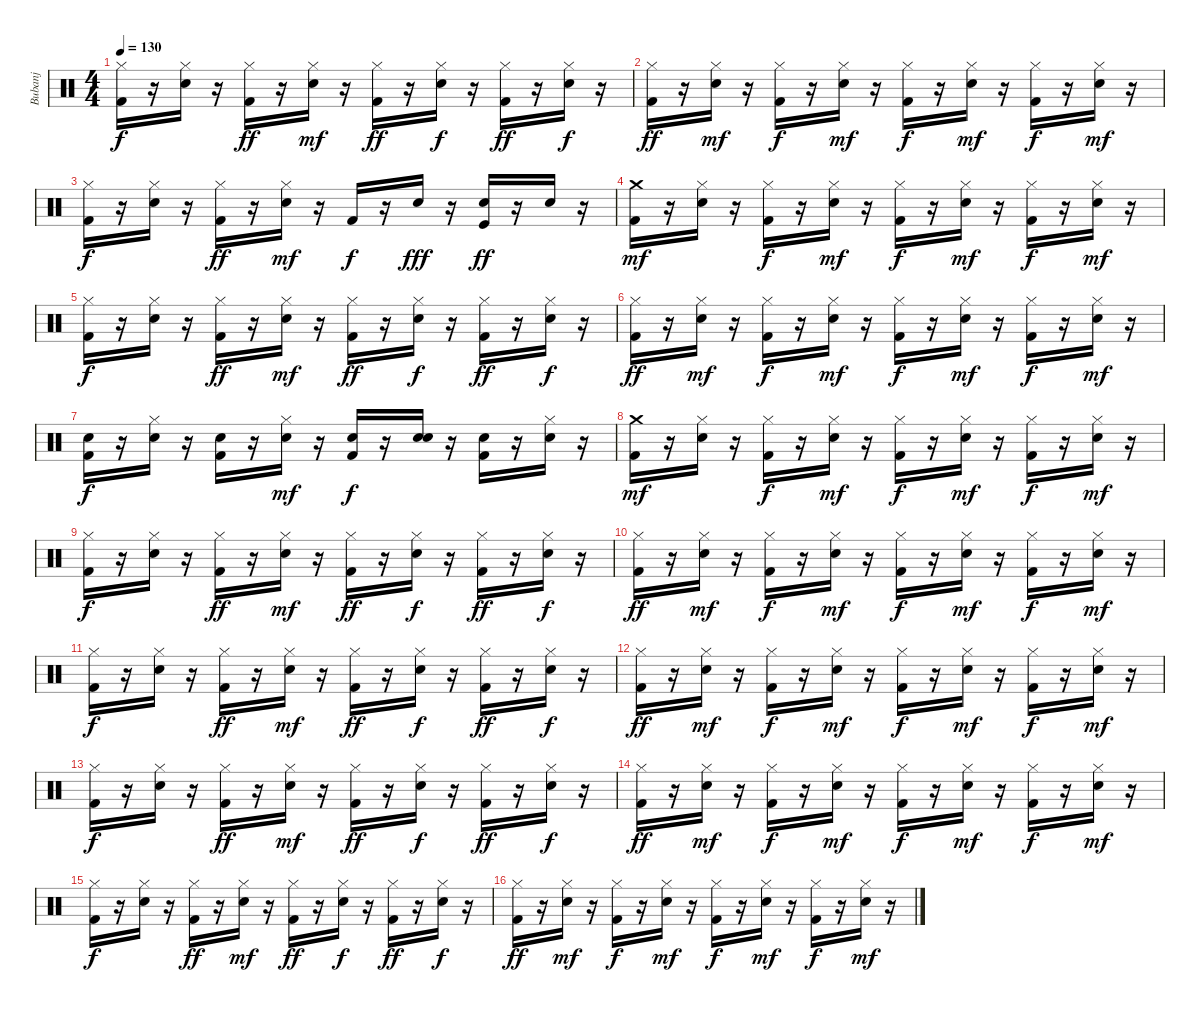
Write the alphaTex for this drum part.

\track ("Bubanj" "Bubanj") {instrument percussion}
\staff {score}
\articulation defaults
\ts (4 4)
\tempo 130
\clef neutral
\ks c
("Kick (hit) 2" "Hi-Hat (closed)").16{dy f} r.16 ("Snare (hit) 2" "Hi-Hat (closed)").16 r.16 ("Kick (hit) 2" "Hi-Hat (closed)").16{dy ff} r.16 ("Snare (hit) 2" "Hi-Hat (closed)").16{dy mf} r.16 ("Kick (hit) 2" "Hi-Hat (closed)").16{dy ff} r.16 ("Snare (hit) 2" "Hi-Hat (closed)").16{dy f} r.16 ("Kick (hit) 2" "Hi-Hat (closed)").16{dy ff} r.16 ("Snare (hit) 2" "Hi-Hat (closed)").16{dy f} r.16 |
("Kick (hit) 2" "Hi-Hat (closed)").16{dy ff} r.16 ("Snare (hit) 2" "Hi-Hat (closed)").16{dy mf} r.16 ("Kick (hit) 2" "Hi-Hat (closed)").16{dy f} r.16 ("Snare (hit) 2" "Hi-Hat (closed)").16{dy mf} r.16 ("Kick (hit) 2" "Hi-Hat (closed)").16{dy f} r.16 ("Snare (hit) 2" "Hi-Hat (closed)").16{dy mf} r.16 ("Kick (hit) 2" "Hi-Hat (closed)").16{dy f} r.16 ("Snare (hit) 2" "Hi-Hat (closed)").16{dy mf} r.16 |
("Kick (hit) 2" "Hi-Hat (closed)").16{dy f} r.16 ("Snare (hit) 2" "Hi-Hat (closed)").16 r.16 ("Kick (hit) 2" "Hi-Hat (closed)").16{dy ff} r.16 ("Snare (hit) 2" "Hi-Hat (closed)").16{dy mf} r.16 "Kick (hit) 2".16{dy f} r.16 "Snare (hit) 2".16{dy fff} r.16 ("Snare (hit) 2" "Kick (hit)").16{dy ff} r.16 "Snare (hit) 2".16 r.16 |
("Kick (hit) 2" "Crash medium (hit)").16{dy mf} r.16 ("Snare (hit) 2" "Hi-Hat (closed)").16 r.16 ("Kick (hit) 2" "Hi-Hat (closed)").16{dy f} r.16 ("Snare (hit) 2" "Hi-Hat (closed)").16{dy mf} r.16 ("Kick (hit) 2" "Hi-Hat (closed)").16{dy f} r.16 ("Snare (hit) 2" "Hi-Hat (closed)").16{dy mf} r.16 ("Kick (hit) 2" "Hi-Hat (closed)").16{dy f} r.16 ("Snare (hit) 2" "Hi-Hat (closed)").16{dy mf} r.16 |
("Kick (hit) 2" "Hi-Hat (closed)").16{dy f} r.16 ("Snare (hit) 2" "Hi-Hat (closed)").16 r.16 ("Kick (hit) 2" "Hi-Hat (closed)").16{dy ff} r.16 ("Snare (hit) 2" "Hi-Hat (closed)").16{dy mf} r.16 ("Kick (hit) 2" "Hi-Hat (closed)").16{dy ff} r.16 ("Snare (hit) 2" "Hi-Hat (closed)").16{dy f} r.16 ("Kick (hit) 2" "Hi-Hat (closed)").16{dy ff} r.16 ("Snare (hit) 2" "Hi-Hat (closed)").16{dy f} r.16 |
("Kick (hit) 2" "Hi-Hat (closed)").16{dy ff} r.16 ("Snare (hit) 2" "Hi-Hat (closed)").16{dy mf} r.16 ("Kick (hit) 2" "Hi-Hat (closed)").16{dy f} r.16 ("Snare (hit) 2" "Hi-Hat (closed)").16{dy mf} r.16 ("Kick (hit) 2" "Hi-Hat (closed)").16{dy f} r.16 ("Snare (hit) 2" "Hi-Hat (closed)").16{dy mf} r.16 ("Kick (hit) 2" "Hi-Hat (closed)").16{dy f} r.16 ("Snare (hit) 2" "Hi-Hat (closed)").16{dy mf} r.16 |
("Kick (hit) 2" "Electric Snare (hit)").16{dy f} r.16 ("Electric Snare (hit)" "Hi-Hat (closed)").16 r.16 ("Kick (hit) 2" "Electric Snare (hit)").16 r.16 ("Electric Snare (hit)" "Hi-Hat (closed)").16{dy mf} r.16 ("Kick (hit) 2" "Electric Snare (hit)").16{dy f} r.16 ("Snare (hit) 2" "Electric Snare (hit)").16 r.16 ("Kick (hit) 2" "Electric Snare (hit)").16 r.16 ("Electric Snare (hit)" "Hi-Hat (closed)").16 r.16 |
("Kick (hit) 2" "Crash medium (hit)").16{dy mf} r.16 ("Snare (hit) 2" "Hi-Hat (closed)").16 r.16 ("Kick (hit) 2" "Hi-Hat (closed)").16{dy f} r.16 ("Snare (hit) 2" "Hi-Hat (closed)").16{dy mf} r.16 ("Kick (hit) 2" "Hi-Hat (closed)").16{dy f} r.16 ("Snare (hit) 2" "Hi-Hat (closed)").16{dy mf} r.16 ("Kick (hit) 2" "Hi-Hat (closed)").16{dy f} r.16 ("Snare (hit) 2" "Hi-Hat (closed)").16{dy mf} r.16 |
("Kick (hit) 2" "Hi-Hat (closed)").16{dy f} r.16 ("Snare (hit) 2" "Hi-Hat (closed)").16 r.16 ("Kick (hit) 2" "Hi-Hat (closed)").16{dy ff} r.16 ("Snare (hit) 2" "Hi-Hat (closed)").16{dy mf} r.16 ("Kick (hit) 2" "Hi-Hat (closed)").16{dy ff} r.16 ("Snare (hit) 2" "Hi-Hat (closed)").16{dy f} r.16 ("Kick (hit) 2" "Hi-Hat (closed)").16{dy ff} r.16 ("Snare (hit) 2" "Hi-Hat (closed)").16{dy f} r.16 |
("Kick (hit) 2" "Hi-Hat (closed)").16{dy ff} r.16 ("Snare (hit) 2" "Hi-Hat (closed)").16{dy mf} r.16 ("Kick (hit) 2" "Hi-Hat (closed)").16{dy f} r.16 ("Snare (hit) 2" "Hi-Hat (closed)").16{dy mf} r.16 ("Kick (hit) 2" "Hi-Hat (closed)").16{dy f} r.16 ("Snare (hit) 2" "Hi-Hat (closed)").16{dy mf} r.16 ("Kick (hit) 2" "Hi-Hat (closed)").16{dy f} r.16 ("Snare (hit) 2" "Hi-Hat (closed)").16{dy mf} r.16 |
("Kick (hit) 2" "Hi-Hat (closed)").16{dy f} r.16 ("Snare (hit) 2" "Hi-Hat (closed)").16 r.16 ("Kick (hit) 2" "Hi-Hat (closed)").16{dy ff} r.16 ("Snare (hit) 2" "Hi-Hat (closed)").16{dy mf} r.16 ("Kick (hit) 2" "Hi-Hat (closed)").16{dy ff} r.16 ("Snare (hit) 2" "Hi-Hat (closed)").16{dy f} r.16 ("Kick (hit) 2" "Hi-Hat (closed)").16{dy ff} r.16 ("Snare (hit) 2" "Hi-Hat (closed)").16{dy f} r.16 |
("Kick (hit) 2" "Hi-Hat (closed)").16{dy ff} r.16 ("Snare (hit) 2" "Hi-Hat (closed)").16{dy mf} r.16 ("Kick (hit) 2" "Hi-Hat (closed)").16{dy f} r.16 ("Snare (hit) 2" "Hi-Hat (closed)").16{dy mf} r.16 ("Kick (hit) 2" "Hi-Hat (closed)").16{dy f} r.16 ("Snare (hit) 2" "Hi-Hat (closed)").16{dy mf} r.16 ("Kick (hit) 2" "Hi-Hat (closed)").16{dy f} r.16 ("Snare (hit) 2" "Hi-Hat (closed)").16{dy mf} r.16 |
("Kick (hit) 2" "Hi-Hat (closed)").16{dy f} r.16 ("Snare (hit) 2" "Hi-Hat (closed)").16 r.16 ("Kick (hit) 2" "Hi-Hat (closed)").16{dy ff} r.16 ("Snare (hit) 2" "Hi-Hat (closed)").16{dy mf} r.16 ("Kick (hit) 2" "Hi-Hat (closed)").16{dy ff} r.16 ("Snare (hit) 2" "Hi-Hat (closed)").16{dy f} r.16 ("Kick (hit) 2" "Hi-Hat (closed)").16{dy ff} r.16 ("Snare (hit) 2" "Hi-Hat (closed)").16{dy f} r.16 |
("Kick (hit) 2" "Hi-Hat (closed)").16{dy ff} r.16 ("Snare (hit) 2" "Hi-Hat (closed)").16{dy mf} r.16 ("Kick (hit) 2" "Hi-Hat (closed)").16{dy f} r.16 ("Snare (hit) 2" "Hi-Hat (closed)").16{dy mf} r.16 ("Kick (hit) 2" "Hi-Hat (closed)").16{dy f} r.16 ("Snare (hit) 2" "Hi-Hat (closed)").16{dy mf} r.16 ("Kick (hit) 2" "Hi-Hat (closed)").16{dy f} r.16 ("Snare (hit) 2" "Hi-Hat (closed)").16{dy mf} r.16 |
("Kick (hit) 2" "Hi-Hat (closed)").16{dy f} r.16 ("Snare (hit) 2" "Hi-Hat (closed)").16 r.16 ("Kick (hit) 2" "Hi-Hat (closed)").16{dy ff} r.16 ("Snare (hit) 2" "Hi-Hat (closed)").16{dy mf} r.16 ("Kick (hit) 2" "Hi-Hat (closed)").16{dy ff} r.16 ("Snare (hit) 2" "Hi-Hat (closed)").16{dy f} r.16 ("Kick (hit) 2" "Hi-Hat (closed)").16{dy ff} r.16 ("Snare (hit) 2" "Hi-Hat (closed)").16{dy f} r.16 |
("Kick (hit) 2" "Hi-Hat (closed)").16{dy ff} r.16 ("Snare (hit) 2" "Hi-Hat (closed)").16{dy mf} r.16 ("Kick (hit) 2" "Hi-Hat (closed)").16{dy f} r.16 ("Snare (hit) 2" "Hi-Hat (closed)").16{dy mf} r.16 ("Kick (hit) 2" "Hi-Hat (closed)").16{dy f} r.16 ("Snare (hit) 2" "Hi-Hat (closed)").16{dy mf} r.16 ("Kick (hit) 2" "Hi-Hat (closed)").16{dy f} r.16 ("Snare (hit) 2" "Hi-Hat (closed)").16{dy mf} r.16
